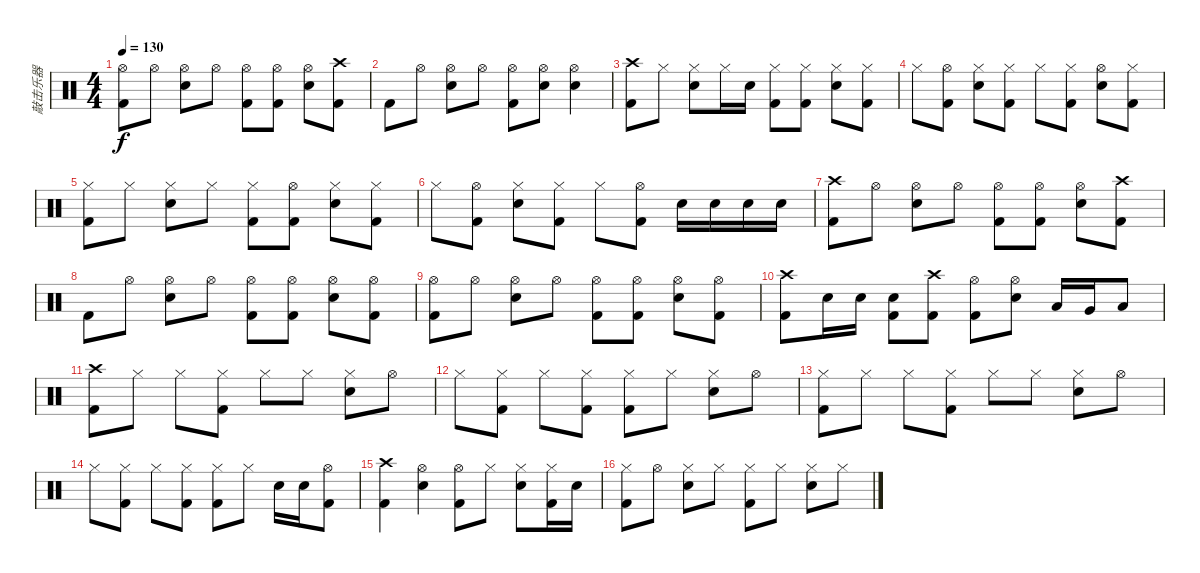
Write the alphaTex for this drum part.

\track ("敲击乐器" "敲击乐器") {instrument percussion}
\staff {score}
\articulation defaults
\ts (4 4)
\tempo 130
\clef neutral
\ks c
("Hi-Hat (open)" "Kick (hit) 2").8{dy f} "Hi-Hat (open)".8 ("Hi-Hat (open)" "Snare (hit) 2").8 "Hi-Hat (open)".8 ("Hi-Hat (open)" "Kick (hit) 2").8 ("Hi-Hat (open)" "Kick (hit) 2").8 ("Hi-Hat (open)" "Snare (hit) 2").8 ("Crash high (hit)" "Kick (hit) 2").8 |
"Kick (hit) 2".8 "Hi-Hat (open)".8 ("Hi-Hat (open)" "Snare (hit) 2").8 "Hi-Hat (open)".8 ("Hi-Hat (open)" "Kick (hit) 2").8 ("Hi-Hat (open)" "Snare (hit) 2").8 ("Hi-Hat (open)" "Snare (hit) 2").4 |
("Crash high (hit)" "Kick (hit) 2").8 "Hi-Hat (closed)".8 ("Hi-Hat (closed)" "Snare (hit) 2").8 "Hi-Hat (closed)".16 "Snare (hit) 2".16 ("Hi-Hat (closed)" "Kick (hit) 2").8 ("Hi-Hat (closed)" "Kick (hit) 2").8 ("Hi-Hat (closed)" "Snare (hit) 2").8 ("Hi-Hat (closed)" "Kick (hit) 2").8 |
"Hi-Hat (closed)".8 ("Hi-Hat (open)" "Kick (hit) 2").8 ("Hi-Hat (closed)" "Snare (hit) 2").8 ("Hi-Hat (closed)" "Kick (hit) 2").8 "Hi-Hat (closed)".8 ("Hi-Hat (closed)" "Kick (hit) 2").8 ("Hi-Hat (open)" "Snare (hit) 2").8 ("Hi-Hat (closed)" "Kick (hit) 2").8 |
("Hi-Hat (closed)" "Kick (hit) 2").8 "Hi-Hat (closed)".8 ("Hi-Hat (closed)" "Snare (hit) 2").8 "Hi-Hat (closed)".8 ("Hi-Hat (closed)" "Kick (hit) 2").8 ("Hi-Hat (open)" "Kick (hit) 2").8 ("Hi-Hat (closed)" "Snare (hit) 2").8 ("Hi-Hat (closed)" "Kick (hit) 2").8 |
"Hi-Hat (closed)".8 ("Hi-Hat (open)" "Kick (hit) 2").8 ("Hi-Hat (closed)" "Snare (hit) 2").8 ("Hi-Hat (closed)" "Kick (hit) 2").8 "Hi-Hat (closed)".8 ("Hi-Hat (open)" "Kick (hit) 2").8 "Snare (hit) 2".16 "Snare (hit) 2".16 "Snare (hit) 2".16 "Snare (hit) 2".16 |
("Crash high (hit)" "Kick (hit) 2").8 "Hi-Hat (open)".8 ("Hi-Hat (open)" "Snare (hit) 2").8 "Hi-Hat (open)".8 ("Hi-Hat (open)" "Kick (hit) 2").8 ("Hi-Hat (open)" "Kick (hit) 2").8 ("Hi-Hat (open)" "Snare (hit) 2").8 ("Crash high (hit)" "Kick (hit) 2").8 |
"Kick (hit) 2".8 "Hi-Hat (open)".8 ("Hi-Hat (open)" "Snare (hit) 2").8 "Hi-Hat (open)".8 ("Hi-Hat (open)" "Kick (hit) 2").8 ("Hi-Hat (open)" "Kick (hit) 2").8 ("Hi-Hat (open)" "Snare (hit) 2").8 ("Hi-Hat (open)" "Kick (hit) 2").8 |
("Hi-Hat (open)" "Kick (hit) 2").8 "Hi-Hat (open)".8 ("Hi-Hat (open)" "Snare (hit) 2").8 "Hi-Hat (open)".8 ("Hi-Hat (open)" "Kick (hit) 2").8 ("Hi-Hat (open)" "Kick (hit) 2").8 ("Hi-Hat (open)" "Snare (hit) 2").8 ("Hi-Hat (open)" "Kick (hit) 2").8 |
("Crash high (hit)" "Kick (hit) 2").8 "Snare (hit) 2".16 "Snare (hit) 2".16 ("Snare (hit) 2" "Kick (hit) 2").8 ("Crash high (hit)" "Kick (hit) 2").8 ("Hi-Hat (open)" "Kick (hit) 2").8 ("Hi-Hat (open)" "Snare (hit) 2").8 "Low Tom (hit)".16 "Very Low Tom (hit)".16 "Low Floor Tom (hit)".8 |
("Crash high (hit)" "Kick (hit) 2").8 "Hi-Hat (closed)".8 "Hi-Hat (closed)".8 ("Hi-Hat (closed)" "Kick (hit) 2").8 "Hi-Hat (closed)".8 "Hi-Hat (closed)".8 ("Hi-Hat (closed)" "Snare (hit) 2").8 "Hi-Hat (open)".8 |
"Hi-Hat (closed)".8 ("Hi-Hat (closed)" "Kick (hit) 2").8 "Hi-Hat (closed)".8 ("Hi-Hat (closed)" "Kick (hit) 2").8 ("Hi-Hat (closed)" "Kick (hit) 2").8 "Hi-Hat (closed)".8 ("Hi-Hat (closed)" "Snare (hit) 2").8 "Hi-Hat (open)".8 |
("Hi-Hat (closed)" "Kick (hit) 2").8 "Hi-Hat (closed)".8 "Hi-Hat (closed)".8 ("Hi-Hat (closed)" "Kick (hit) 2").8 "Hi-Hat (closed)".8 "Hi-Hat (closed)".8 ("Hi-Hat (closed)" "Snare (hit) 2").8 "Hi-Hat (open)".8 |
"Hi-Hat (closed)".8 ("Hi-Hat (closed)" "Kick (hit) 2").8 "Hi-Hat (closed)".8 ("Hi-Hat (closed)" "Kick (hit) 2").8 ("Hi-Hat (closed)" "Kick (hit) 2").8 "Hi-Hat (closed)".8 "Snare (hit) 2".16 "Snare (hit) 2".16 ("Hi-Hat (open)" "Kick (hit) 2").8 |
("Crash high (hit)" "Kick (hit) 2").4 ("Hi-Hat (open)" "Snare (hit) 2").4 ("Hi-Hat (open)" "Kick (hit) 2").8 "Hi-Hat (closed)".8 ("Hi-Hat (closed)" "Snare (hit) 2").8 ("Hi-Hat (closed)" "Kick (hit) 2").16 "Snare (hit) 2".16 |
("Hi-Hat (closed)" "Kick (hit) 2").8 "Hi-Hat (open)".8 ("Hi-Hat (closed)" "Snare (hit) 2").8 "Hi-Hat (closed)".8 ("Hi-Hat (closed)" "Kick (hit) 2").8 "Hi-Hat (closed)".8 ("Hi-Hat (closed)" "Snare (hit) 2").8 "Hi-Hat (closed)".8
